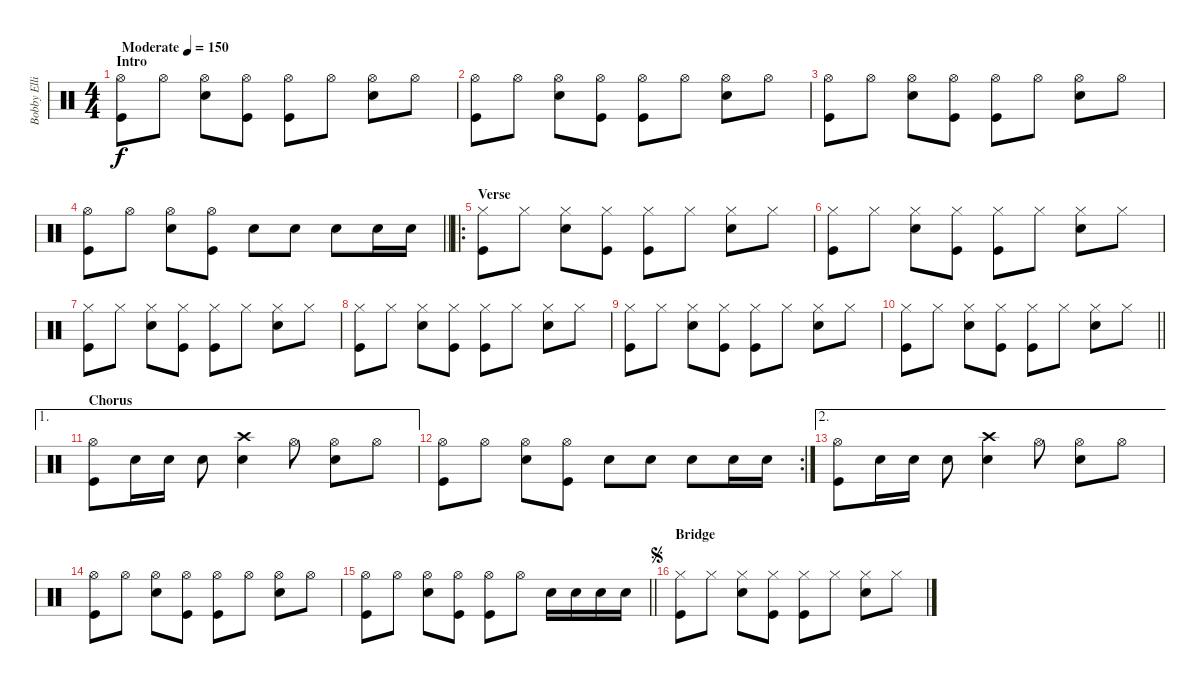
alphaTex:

\track ("Bobby Elliott" "Bobby Elli") {instrument percussion}
\staff {score}
\articulation defaults
\ts (4 4)
\section ("" "Intro")
\tempo (150 "Moderate")
\clef neutral
\ks c
("Hi-Hat (open)" "Kick (hit)").8{dy f} "Hi-Hat (open)".8 ("Hi-Hat (open)" "Snare (hit) 2").8 ("Hi-Hat (open)" "Kick (hit)").8 ("Hi-Hat (open)" "Kick (hit)").8 "Hi-Hat (open)".8 ("Hi-Hat (open)" "Snare (hit) 2").8 "Hi-Hat (open)".8 |
("Hi-Hat (open)" "Kick (hit)").8 "Hi-Hat (open)".8 ("Hi-Hat (open)" "Snare (hit) 2").8 ("Hi-Hat (open)" "Kick (hit)").8 ("Hi-Hat (open)" "Kick (hit)").8 "Hi-Hat (open)".8 ("Hi-Hat (open)" "Snare (hit) 2").8 "Hi-Hat (open)".8 |
("Hi-Hat (open)" "Kick (hit)").8 "Hi-Hat (open)".8 ("Hi-Hat (open)" "Snare (hit) 2").8 ("Hi-Hat (open)" "Kick (hit)").8 ("Hi-Hat (open)" "Kick (hit)").8 "Hi-Hat (open)".8 ("Hi-Hat (open)" "Snare (hit) 2").8 "Hi-Hat (open)".8 |
\barLineRight lightlight
("Hi-Hat (open)" "Kick (hit)").8 "Hi-Hat (open)".8 ("Hi-Hat (open)" "Snare (hit) 2").8 ("Hi-Hat (open)" "Kick (hit)").8 "Snare (hit) 2".8 "Snare (hit) 2".8 "Snare (hit) 2".8 "Snare (hit) 2".16 "Snare (hit) 2".16 |
\ro
\section ("" "Verse")
("Hi-Hat (closed)" "Kick (hit)").8 "Hi-Hat (closed)".8 ("Hi-Hat (closed)" "Snare (hit) 2").8 ("Hi-Hat (closed)" "Kick (hit)").8 ("Hi-Hat (closed)" "Kick (hit)").8 "Hi-Hat (closed)".8 ("Hi-Hat (closed)" "Snare (hit) 2").8 "Hi-Hat (closed)".8 |
("Hi-Hat (closed)" "Kick (hit)").8 "Hi-Hat (closed)".8 ("Hi-Hat (closed)" "Snare (hit) 2").8 ("Hi-Hat (closed)" "Kick (hit)").8 ("Hi-Hat (closed)" "Kick (hit)").8 "Hi-Hat (closed)".8 ("Hi-Hat (closed)" "Snare (hit) 2").8 "Hi-Hat (closed)".8 |
("Hi-Hat (closed)" "Kick (hit)").8 "Hi-Hat (closed)".8 ("Hi-Hat (closed)" "Snare (hit) 2").8 ("Hi-Hat (closed)" "Kick (hit)").8 ("Hi-Hat (closed)" "Kick (hit)").8 "Hi-Hat (closed)".8 ("Hi-Hat (closed)" "Snare (hit) 2").8 "Hi-Hat (closed)".8 |
("Hi-Hat (closed)" "Kick (hit)").8 "Hi-Hat (closed)".8 ("Hi-Hat (closed)" "Snare (hit) 2").8 ("Hi-Hat (closed)" "Kick (hit)").8 ("Hi-Hat (closed)" "Kick (hit)").8 "Hi-Hat (closed)".8 ("Hi-Hat (closed)" "Snare (hit) 2").8 "Hi-Hat (closed)".8 |
("Hi-Hat (closed)" "Kick (hit)").8 "Hi-Hat (closed)".8 ("Hi-Hat (closed)" "Snare (hit) 2").8 ("Hi-Hat (closed)" "Kick (hit)").8 ("Hi-Hat (closed)" "Kick (hit)").8 "Hi-Hat (closed)".8 ("Hi-Hat (closed)" "Snare (hit) 2").8 "Hi-Hat (closed)".8 |
\barLineRight lightlight
("Hi-Hat (closed)" "Kick (hit)").8 "Hi-Hat (closed)".8 ("Hi-Hat (closed)" "Snare (hit) 2").8 ("Hi-Hat (closed)" "Kick (hit)").8 ("Hi-Hat (closed)" "Kick (hit)").8 "Hi-Hat (closed)".8 ("Hi-Hat (closed)" "Snare (hit) 2").8 "Hi-Hat (closed)".8 |
\ae 1
\section ("" "Chorus")
("Hi-Hat (open)" "Kick (hit)").8 "Snare (hit) 2".16 "Snare (hit) 2".16 "Snare (hit) 2".8 ("Crash high (hit)" "Snare (hit) 2").4 "Hi-Hat (open)".8 ("Hi-Hat (open)" "Snare (hit) 2").8 "Hi-Hat (open)".8 |
\rc 2
("Hi-Hat (open)" "Kick (hit)").8 "Hi-Hat (open)".8 ("Hi-Hat (open)" "Snare (hit) 2").8 ("Hi-Hat (open)" "Kick (hit)").8 "Snare (hit) 2".8 "Snare (hit) 2".8 "Snare (hit) 2".8 "Snare (hit) 2".16 "Snare (hit) 2".16 |
\ae 2
("Hi-Hat (open)" "Kick (hit)").8 "Snare (hit) 2".16 "Snare (hit) 2".16 "Snare (hit) 2".8 ("Crash high (hit)" "Snare (hit) 2").4 "Hi-Hat (open)".8 ("Hi-Hat (open)" "Snare (hit) 2").8 "Hi-Hat (open)".8 |
("Hi-Hat (open)" "Kick (hit)").8 "Hi-Hat (open)".8 ("Hi-Hat (open)" "Snare (hit) 2").8 ("Hi-Hat (open)" "Kick (hit)").8 ("Hi-Hat (open)" "Kick (hit)").8 "Hi-Hat (open)".8 ("Hi-Hat (open)" "Snare (hit) 2").8 "Hi-Hat (open)".8 |
\barLineRight lightlight
("Hi-Hat (open)" "Kick (hit)").8 "Hi-Hat (open)".8 ("Hi-Hat (open)" "Snare (hit) 2").8 ("Hi-Hat (open)" "Kick (hit)").8 ("Hi-Hat (open)" "Kick (hit)").8 "Hi-Hat (open)".8 "Snare (hit) 2".16 "Snare (hit) 2".16 "Snare (hit) 2".16 "Snare (hit) 2".16 |
\section ("" "Bridge")
\jump segno
("Hi-Hat (closed)" "Kick (hit)").8 "Hi-Hat (closed)".8 ("Hi-Hat (closed)" "Snare (hit) 2").8 ("Hi-Hat (closed)" "Kick (hit)").8 ("Hi-Hat (closed)" "Kick (hit)").8 "Hi-Hat (closed)".8 ("Hi-Hat (closed)" "Snare (hit) 2").8 "Hi-Hat (closed)".8
